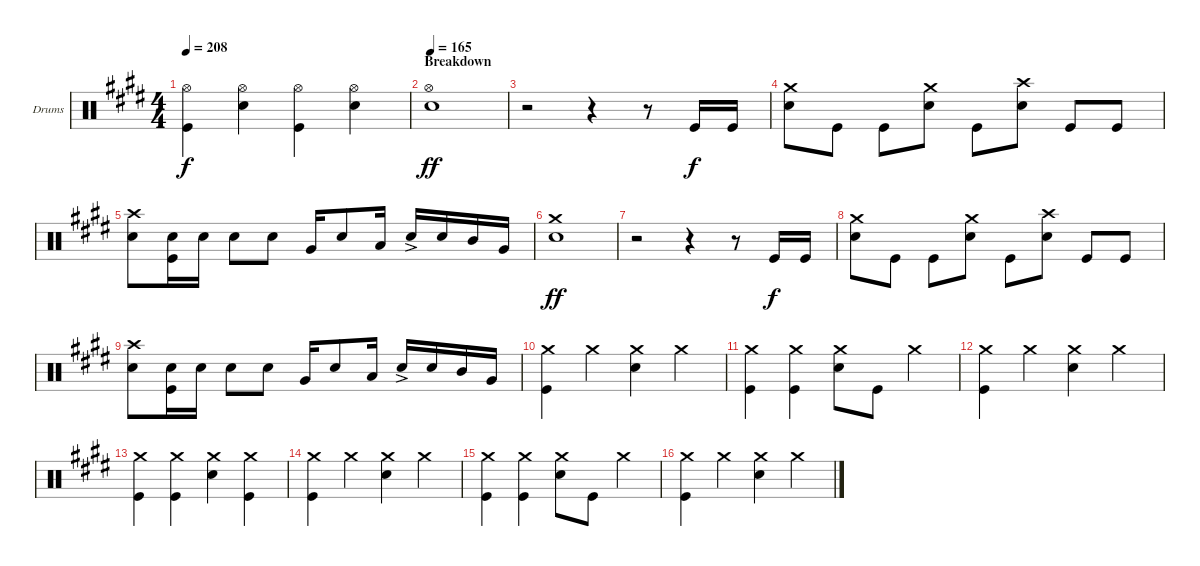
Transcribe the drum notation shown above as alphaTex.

\defaultSystemsLayout 4
\bracketExtendMode groupsimilarinstruments
\firstSystemTrackNameOrientation horizontal
\otherSystemsTrackNameOrientation horizontal
\track ("Corey Friedlander - Drums" "Drums") {instrument percussion}
\staff {score}
\articulation defaults
\ts (4 4)
\tempo 208
\clef neutral
\ks c#minor
("Kick (hit)" "Hi-Hat (open)").4{dy f} ("Snare (hit) 2" "Hi-Hat (open)").4 ("Kick (hit)" "Hi-Hat (open)").4 ("Snare (hit) 2" "Hi-Hat (open)").4 |
\section ("" "Breakdown")
\tempo 165
("Snare (hit) 2" "Hi-Hat (open)").1{dy ff} |
r.2 r.4 r.8 "Kick (hit)".16{dy f} "Kick (hit)".16 |
("Snare (hit) 2" "Crash medium (hit)").8 "Kick (hit)".8 "Kick (hit)".8 ("Snare (hit) 2" "Crash medium (hit)").8 "Kick (hit)".8 ("Snare (hit) 2" "Crash high (hit)").8 "Kick (hit)".8 "Kick (hit)".8 |
("Snare (hit) 2" "Crash high (hit)").8 ("Kick (hit)" "Snare (hit) 2").16 "Snare (hit) 2".16 "Snare (hit) 2".8 "Snare (hit) 2".8 "Very Low Tom (hit)".16 "Snare (hit) 2".8 "Low Tom (hit)".16 "Snare (hit) 2"{ac}.16 "Snare (hit) 2".16 "Mid Tom (hit)".16 "Very Low Tom (hit)".16 |
("Snare (hit) 2" "Crash medium (hit)").1{dy ff} |
r.2 r.4 r.8 "Kick (hit)".16{dy f} "Kick (hit)".16 |
("Snare (hit) 2" "Crash medium (hit)").8 "Kick (hit)".8 "Kick (hit)".8 ("Snare (hit) 2" "Crash medium (hit)").8 "Kick (hit)".8 ("Snare (hit) 2" "Crash high (hit)").8 "Kick (hit)".8 "Kick (hit)".8 |
("Snare (hit) 2" "Crash high (hit)").8 ("Kick (hit)" "Snare (hit) 2").16 "Snare (hit) 2".16 "Snare (hit) 2".8 "Snare (hit) 2".8 "Very Low Tom (hit)".16 "Snare (hit) 2".8 "Low Tom (hit)".16 "Snare (hit) 2"{ac}.16 "Snare (hit) 2".16 "Mid Tom (hit)".16 "Very Low Tom (hit)".16 |
\scale
0.573034 ("Kick (hit)" "Crash medium (hit)").4 "Crash medium (hit)".4 ("Crash medium (hit)" "Snare (hit) 2").4 "Crash medium (hit)".4 |
\scale
0.213483 ("Kick (hit)" "Crash medium (hit)").4 ("Kick (hit)" "Crash medium (hit)").4 ("Crash medium (hit)" "Snare (hit) 2").8 "Kick (hit)".8 "Crash medium (hit)".4 |
\scale
0.213483 ("Kick (hit)" "Crash medium (hit)").4 "Crash medium (hit)".4 ("Crash medium (hit)" "Snare (hit) 2").4 "Crash medium (hit)".4 |
("Kick (hit)" "Crash medium (hit)").4 ("Kick (hit)" "Crash medium (hit)").4 ("Crash medium (hit)" "Snare (hit) 2").4 ("Crash medium (hit)" "Kick (hit)").4 |
("Kick (hit)" "Crash medium (hit)").4 "Crash medium (hit)".4 ("Crash medium (hit)" "Snare (hit) 2").4 "Crash medium (hit)".4 |
("Kick (hit)" "Crash medium (hit)").4 ("Kick (hit)" "Crash medium (hit)").4 ("Crash medium (hit)" "Snare (hit) 2").8 "Kick (hit)".8 "Crash medium (hit)".4 |
("Kick (hit)" "Crash medium (hit)").4 "Crash medium (hit)".4 ("Crash medium (hit)" "Snare (hit) 2").4 "Crash medium (hit)".4
